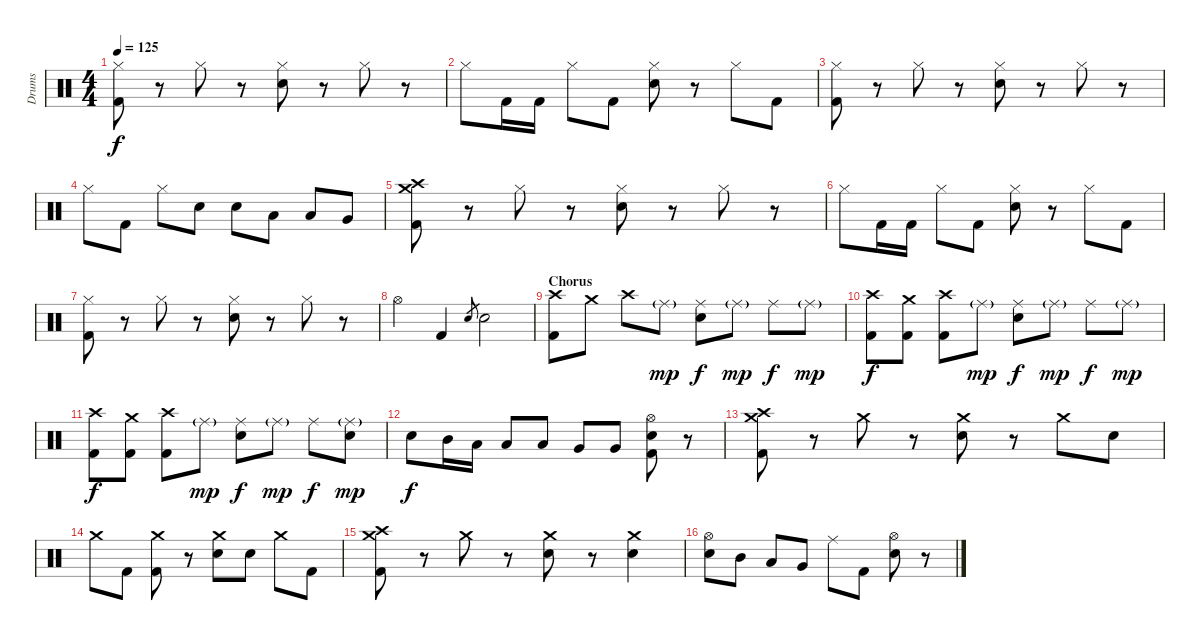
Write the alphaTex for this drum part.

\track ("Drums" "Drums") {instrument percussion}
\staff {score}
\articulation defaults
\ts (4 4)
\tempo 125
\clef neutral
\ks c
("Hi-Hat (closed)" "Kick (hit) 2").8{dy f} r.8 "Hi-Hat (closed)".8 r.8 ("Hi-Hat (closed)" "Electric Snare (hit)").8 r.8 "Hi-Hat (closed)".8 r.8 |
"Hi-Hat (closed)".8 "Kick (hit) 2".16 "Kick (hit) 2".16 "Hi-Hat (closed)".8 "Kick (hit) 2".8 ("Hi-Hat (closed)" "Electric Snare (hit)").8 r.8 "Hi-Hat (closed)".8 "Kick (hit) 2".8 |
("Hi-Hat (closed)" "Kick (hit) 2").8 r.8 "Hi-Hat (closed)".8 r.8 ("Hi-Hat (closed)" "Electric Snare (hit)").8 r.8 "Hi-Hat (closed)".8 r.8 |
"Hi-Hat (closed)".8 "Kick (hit) 2".8 "Hi-Hat (closed)".8 "Electric Snare (hit)".8 "Electric Snare (hit)".8 "Low Tom (hit)".8 "Low Tom (hit)".8 "Very Low Tom (hit)".8 |
("Crash medium (hit)" "Crash high (hit)" "Kick (hit) 2").8 r.8 "Hi-Hat (closed)".8 r.8 ("Hi-Hat (closed)" "Electric Snare (hit)").8 r.8 "Hi-Hat (closed)".8 r.8 |
"Hi-Hat (closed)".8 "Kick (hit) 2".16 "Kick (hit) 2".16 "Hi-Hat (closed)".8 "Kick (hit) 2".8 ("Hi-Hat (closed)" "Electric Snare (hit)").8 r.8 "Hi-Hat (closed)".8 "Kick (hit) 2".8 |
("Hi-Hat (closed)" "Kick (hit) 2").8 r.8 "Hi-Hat (closed)".8 r.8 ("Hi-Hat (closed)" "Electric Snare (hit)").8 r.8 "Hi-Hat (closed)".8 r.8 |
"Hi-Hat (open)".4 "Kick (hit) 2".4 "Electric Snare (hit)".8{gr} "Electric Snare (hit)".2 |
\section ("" "Chorus")
("Crash high (hit)" "Kick (hit) 2").8 "Crash medium (hit)".8 "Crash high (hit)".8 "Ride (middle)"{g}.8{dy mp} ("Ride (middle)" "Electric Snare (hit)").8{dy f} "Ride (middle)"{g}.8{dy mp} "Ride (middle)".8{dy f} "Ride (middle)"{g}.8{dy mp} |
("Crash high (hit)" "Kick (hit) 2").8{dy f} ("Crash medium (hit)" "Kick (hit) 2").8 ("Crash high (hit)" "Kick (hit) 2").8 "Ride (middle)"{g}.8{dy mp} ("Ride (middle)" "Electric Snare (hit)").8{dy f} "Ride (middle)"{g}.8{dy mp} "Ride (middle)".8{dy f} "Ride (middle)"{g}.8{dy mp} |
("Crash high (hit)" "Kick (hit) 2").8{dy f} ("Crash medium (hit)" "Kick (hit) 2").8 ("Crash high (hit)" "Kick (hit) 2").8 "Ride (middle)"{g}.8{dy mp} ("Ride (middle)" "Electric Snare (hit)").8{dy f} "Ride (middle)"{g}.8{dy mp} "Ride (middle)".8{dy f} ("Ride (middle)"{g} "Electric Snare (hit)").8{dy mp} |
"Electric Snare (hit)".8{dy f} "Mid Tom (hit)".16 "Low Tom (hit)".16 "Low Tom (hit)".8 "Low Tom (hit)".8 "Very Low Tom (hit)".8 "Very Low Tom (hit)".8 ("Hi-Hat (open)" "Electric Snare (hit)" "Kick (hit) 2").8 r.8 |
("Crash medium (hit)" "Crash high (hit)" "Kick (hit) 2").8 r.8 "Crash medium (hit)".8 r.8 ("Crash medium (hit)" "Electric Snare (hit)").8 r.8 "Crash medium (hit)".8 "Electric Snare (hit)".8 |
"Crash medium (hit)".8 "Kick (hit) 2".8 ("Crash medium (hit)" "Kick (hit) 2").8 r.8 ("Crash medium (hit)" "Electric Snare (hit)").8 "Electric Snare (hit)".8 "Crash medium (hit)".8 "Kick (hit) 2".8 |
("Crash medium (hit)" "Crash high (hit)" "Kick (hit) 2").8 r.8 "Crash medium (hit)".8 r.8 ("Crash medium (hit)" "Electric Snare (hit)").8 r.8 ("Crash medium (hit)" "Electric Snare (hit)").4 |
("Hi-Hat (open)" "Electric Snare (hit)").8 "Mid Tom (hit)".8 "Low Tom (hit)".8 "Very Low Tom (hit)".8 "Ride (middle)".8 "Kick (hit) 2".8 ("Hi-Hat (open)" "Electric Snare (hit)").8 r.8
